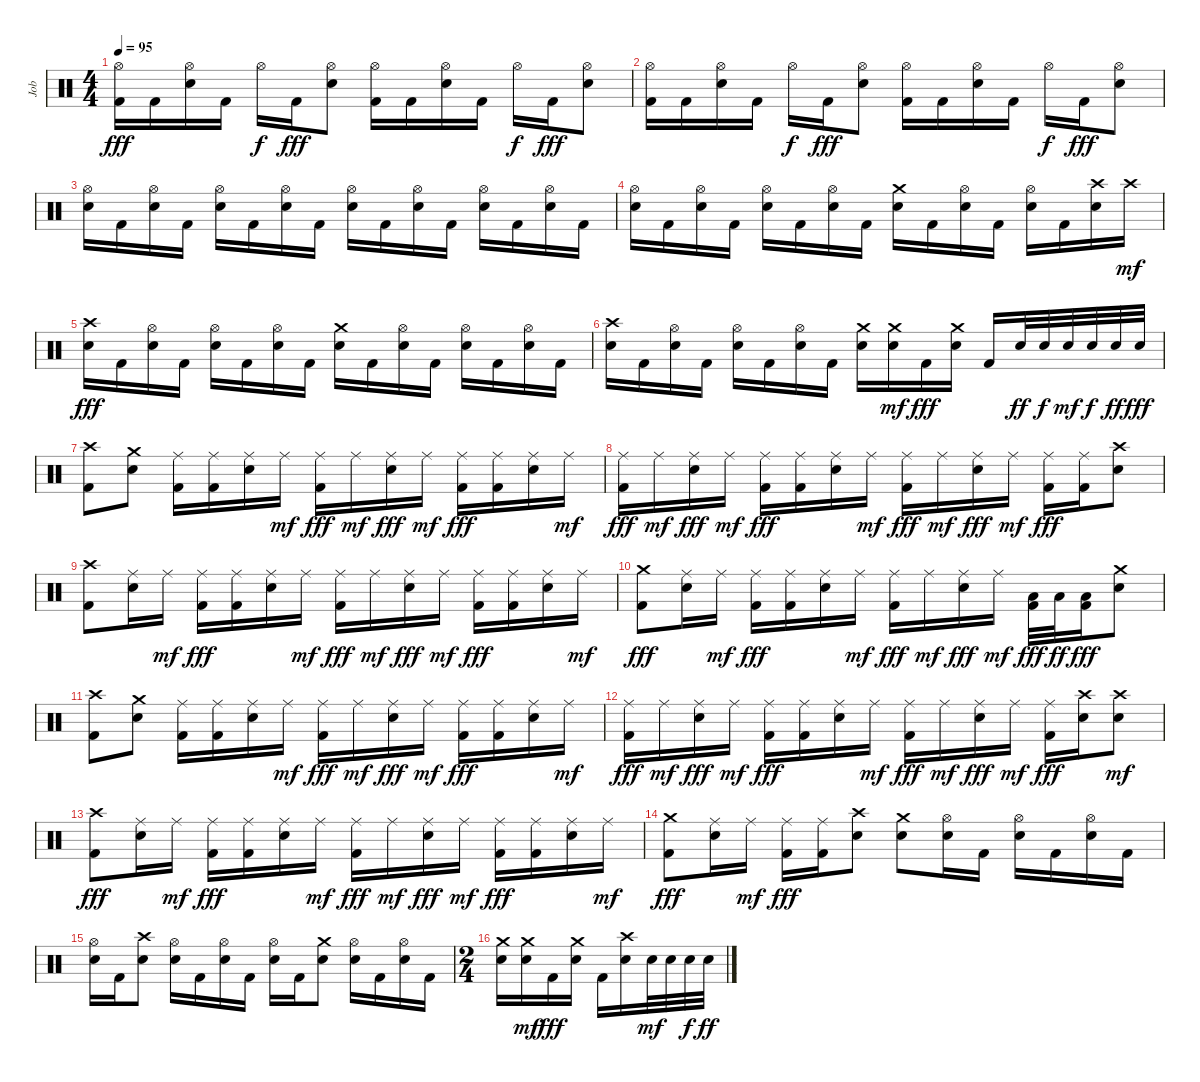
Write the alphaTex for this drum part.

\track ("Job" "Job") {instrument percussion}
\staff {score}
\articulation defaults
\ts (4 4)
\tempo 95
\clef neutral
\ks c
("Hi-Hat (open)" "Kick (hit) 2").16{dy fff} "Kick (hit) 2".16 ("Hi-Hat (open)" "Electric Snare (hit)").16 "Kick (hit) 2".16 "Hi-Hat (open)".16{dy f} "Kick (hit) 2".16{dy fff} ("Hi-Hat (open)" "Electric Snare (hit)").8 ("Hi-Hat (open)" "Kick (hit) 2").16 "Kick (hit) 2".16 ("Hi-Hat (open)" "Electric Snare (hit)").16 "Kick (hit) 2".16 "Hi-Hat (open)".16{dy f} "Kick (hit) 2".16{dy fff} ("Hi-Hat (open)" "Electric Snare (hit)").8 |
("Hi-Hat (open)" "Kick (hit) 2").16 "Kick (hit) 2".16 ("Hi-Hat (open)" "Electric Snare (hit)").16 "Kick (hit) 2".16 "Hi-Hat (open)".16{dy f} "Kick (hit) 2".16{dy fff} ("Hi-Hat (open)" "Electric Snare (hit)").8 ("Hi-Hat (open)" "Kick (hit) 2").16 "Kick (hit) 2".16 ("Hi-Hat (open)" "Electric Snare (hit)").16 "Kick (hit) 2".16 "Hi-Hat (open)".16{dy f} "Kick (hit) 2".16{dy fff} ("Hi-Hat (open)" "Electric Snare (hit)").8 |
("Hi-Hat (open)" "Electric Snare (hit)").16 "Kick (hit) 2".16 ("Hi-Hat (open)" "Electric Snare (hit)").16 "Kick (hit) 2".16 ("Hi-Hat (open)" "Electric Snare (hit)").16 "Kick (hit) 2".16 ("Hi-Hat (open)" "Electric Snare (hit)").16 "Kick (hit) 2".16 ("Hi-Hat (open)" "Electric Snare (hit)").16 "Kick (hit) 2".16 ("Hi-Hat (open)" "Electric Snare (hit)").16 "Kick (hit) 2".16 ("Hi-Hat (open)" "Electric Snare (hit)").16 "Kick (hit) 2".16 ("Hi-Hat (open)" "Electric Snare (hit)").16 "Kick (hit) 2".16 |
("Hi-Hat (open)" "Electric Snare (hit)").16 "Kick (hit) 2".16 ("Hi-Hat (open)" "Electric Snare (hit)").16 "Kick (hit) 2".16 ("Hi-Hat (open)" "Electric Snare (hit)").16 "Kick (hit) 2".16 ("Hi-Hat (open)" "Electric Snare (hit)").16 "Kick (hit) 2".16 ("Crash medium (hit)" "Electric Snare (hit)").16 "Kick (hit) 2".16 ("Hi-Hat (open)" "Electric Snare (hit)").16 "Kick (hit) 2".16 ("Hi-Hat (open)" "Electric Snare (hit)").16 "Kick (hit) 2".16 ("Crash high (hit)" "Electric Snare (hit)").16 "Crash high (hit)".16{dy mf} |
("Crash high (hit)" "Electric Snare (hit)").16{dy fff} "Kick (hit) 2".16 ("Hi-Hat (open)" "Electric Snare (hit)").16 "Kick (hit) 2".16 ("Hi-Hat (open)" "Electric Snare (hit)").16 "Kick (hit) 2".16 ("Hi-Hat (open)" "Electric Snare (hit)").16 "Kick (hit) 2".16 ("Crash medium (hit)" "Electric Snare (hit)").16 "Kick (hit) 2".16 ("Hi-Hat (open)" "Electric Snare (hit)").16 "Kick (hit) 2".16 ("Hi-Hat (open)" "Electric Snare (hit)").16 "Kick (hit) 2".16 ("Hi-Hat (open)" "Electric Snare (hit)").16 "Kick (hit) 2".16 |
("Crash high (hit)" "Electric Snare (hit)").16 "Kick (hit) 2".16 ("Hi-Hat (open)" "Electric Snare (hit)").16 "Kick (hit) 2".16 ("Hi-Hat (open)" "Electric Snare (hit)").16 "Kick (hit) 2".16 ("Hi-Hat (open)" "Electric Snare (hit)").16 "Kick (hit) 2".16 ("Crash medium (hit)" "Electric Snare (hit)").16 ("Crash medium (hit)" "Electric Snare (hit)").16{dy mf} "Kick (hit) 2".16{dy fff} ("Crash medium (hit)" "Electric Snare (hit)").16 "Kick (hit) 2".16 "Electric Snare (hit)".32{dy ff} "Electric Snare (hit)".32{dy f} "Electric Snare (hit)".32{dy mf} "Electric Snare (hit)".32{dy f} "Electric Snare (hit)".32{dy ff} "Electric Snare (hit)".32{dy fff} |
("Crash high (hit)" "Kick (hit) 2").8 ("Crash medium (hit)" "Electric Snare (hit)").8 ("Ride (middle)" "Kick (hit) 2").16 ("Ride (middle)" "Kick (hit) 2").16 ("Ride (middle)" "Electric Snare (hit)").16 "Ride (middle)".16{dy mf} ("Ride (middle)" "Kick (hit) 2").16{dy fff} "Ride (middle)".16{dy mf} ("Ride (middle)" "Electric Snare (hit)").16{dy fff} "Ride (middle)".16{dy mf} ("Ride (middle)" "Kick (hit) 2").16{dy fff} ("Ride (middle)" "Kick (hit) 2").16 ("Ride (middle)" "Electric Snare (hit)").16 "Ride (middle)".16{dy mf} |
("Ride (middle)" "Kick (hit) 2").16{dy fff} "Ride (middle)".16{dy mf} ("Ride (middle)" "Electric Snare (hit)").16{dy fff} "Ride (middle)".16{dy mf} ("Ride (middle)" "Kick (hit) 2").16{dy fff} ("Ride (middle)" "Kick (hit) 2").16 ("Ride (middle)" "Electric Snare (hit)").16 "Ride (middle)".16{dy mf} ("Ride (middle)" "Kick (hit) 2").16{dy fff} "Ride (middle)".16{dy mf} ("Ride (middle)" "Electric Snare (hit)").16{dy fff} "Ride (middle)".16{dy mf} ("Ride (middle)" "Kick (hit) 2").16{dy fff} ("Ride (middle)" "Kick (hit) 2").16 ("Crash high (hit)" "Electric Snare (hit)").8 |
("Crash high (hit)" "Kick (hit) 2").8 ("Ride (middle)" "Electric Snare (hit)").16 "Ride (middle)".16{dy mf} ("Ride (middle)" "Kick (hit) 2").16{dy fff} ("Ride (middle)" "Kick (hit) 2").16 ("Ride (middle)" "Electric Snare (hit)").16 "Ride (middle)".16{dy mf} ("Ride (middle)" "Kick (hit) 2").16{dy fff} "Ride (middle)".16{dy mf} ("Ride (middle)" "Electric Snare (hit)").16{dy fff} "Ride (middle)".16{dy mf} ("Ride (middle)" "Kick (hit) 2").16{dy fff} ("Ride (middle)" "Kick (hit) 2").16 ("Ride (middle)" "Electric Snare (hit)").16 "Ride (middle)".16{dy mf} |
("Crash medium (hit)" "Kick (hit) 2").8{dy fff} ("Ride (middle)" "Electric Snare (hit)").16 "Ride (middle)".16{dy mf} ("Ride (middle)" "Kick (hit) 2").16{dy fff} ("Ride (middle)" "Kick (hit) 2").16 ("Ride (middle)" "Electric Snare (hit)").16 "Ride (middle)".16{dy mf} ("Ride (middle)" "Kick (hit) 2").16{dy fff} "Ride (middle)".16{dy mf} ("Ride (middle)" "Electric Snare (hit)").16{dy fff} "Ride (middle)".16{dy mf} ("Low Tom (hit)" "Kick (hit) 2").32{dy fff} "Low Tom (hit)".32{dy ff} ("Low Tom (hit)" "Kick (hit) 2").16{dy fff} ("Crash medium (hit)" "Electric Snare (hit)").8 |
("Crash high (hit)" "Kick (hit) 2").8 ("Crash medium (hit)" "Electric Snare (hit)").8 ("Ride (middle)" "Kick (hit) 2").16 ("Ride (middle)" "Kick (hit) 2").16 ("Ride (middle)" "Electric Snare (hit)").16 "Ride (middle)".16{dy mf} ("Ride (middle)" "Kick (hit) 2").16{dy fff} "Ride (middle)".16{dy mf} ("Ride (middle)" "Electric Snare (hit)").16{dy fff} "Ride (middle)".16{dy mf} ("Ride (middle)" "Kick (hit) 2").16{dy fff} ("Ride (middle)" "Kick (hit) 2").16 ("Ride (middle)" "Electric Snare (hit)").16 "Ride (middle)".16{dy mf} |
("Ride (middle)" "Kick (hit) 2").16{dy fff} "Ride (middle)".16{dy mf} ("Ride (middle)" "Electric Snare (hit)").16{dy fff} "Ride (middle)".16{dy mf} ("Ride (middle)" "Kick (hit) 2").16{dy fff} ("Ride (middle)" "Kick (hit) 2").16 ("Ride (middle)" "Electric Snare (hit)").16 "Ride (middle)".16{dy mf} ("Ride (middle)" "Kick (hit) 2").16{dy fff} "Ride (middle)".16{dy mf} ("Ride (middle)" "Electric Snare (hit)").16{dy fff} "Ride (middle)".16{dy mf} ("Ride (middle)" "Kick (hit) 2").16{dy fff} ("Crash high (hit)" "Electric Snare (hit)").16 ("Crash high (hit)" "Electric Snare (hit)").8{dy mf} |
("Crash high (hit)" "Kick (hit) 2").8{dy fff} ("Ride (middle)" "Electric Snare (hit)").16 "Ride (middle)".16{dy mf} ("Ride (middle)" "Kick (hit) 2").16{dy fff} ("Ride (middle)" "Kick (hit) 2").16 ("Ride (middle)" "Electric Snare (hit)").16 "Ride (middle)".16{dy mf} ("Ride (middle)" "Kick (hit) 2").16{dy fff} "Ride (middle)".16{dy mf} ("Ride (middle)" "Electric Snare (hit)").16{dy fff} "Ride (middle)".16{dy mf} ("Ride (middle)" "Kick (hit) 2").16{dy fff} ("Ride (middle)" "Kick (hit) 2").16 ("Ride (middle)" "Electric Snare (hit)").16 "Ride (middle)".16{dy mf} |
("Crash medium (hit)" "Kick (hit) 2").8{dy fff} ("Ride (middle)" "Electric Snare (hit)").16 "Ride (middle)".16{dy mf} ("Ride (middle)" "Kick (hit) 2").16{dy fff} ("Ride (middle)" "Kick (hit) 2").16 ("Crash high (hit)" "Electric Snare (hit)").8 ("Crash medium (hit)" "Electric Snare (hit)").8 ("Hi-Hat (open)" "Electric Snare (hit)").16 "Kick (hit) 2".16 ("Hi-Hat (open)" "Electric Snare (hit)").16 "Kick (hit) 2".16 ("Hi-Hat (open)" "Electric Snare (hit)").16 "Kick (hit) 2".16 |
("Hi-Hat (open)" "Electric Snare (hit)").16 "Kick (hit) 2".16 ("Crash high (hit)" "Electric Snare (hit)").8 ("Hi-Hat (open)" "Electric Snare (hit)").16 "Kick (hit) 2".16 ("Hi-Hat (open)" "Electric Snare (hit)").16 "Kick (hit) 2".16 ("Hi-Hat (open)" "Electric Snare (hit)").16 "Kick (hit) 2".16 ("Crash medium (hit)" "Electric Snare (hit)").8 ("Hi-Hat (open)" "Electric Snare (hit)").16 "Kick (hit) 2".16 ("Hi-Hat (open)" "Electric Snare (hit)").16 "Kick (hit) 2".16 |
\ts (2 4)
("Crash medium (hit)" "Electric Snare (hit)").16 ("Crash medium (hit)" "Electric Snare (hit)").16{dy mf} "Kick (hit) 2".16{dy fff} ("Crash medium (hit)" "Electric Snare (hit)").16 "Kick (hit) 2".16 ("Crash high (hit)" "Electric Snare (hit)").16 "Electric Snare (hit)".32{dy mf} "Electric Snare (hit)".32 "Electric Snare (hit)".32{dy f} "Electric Snare (hit)".32{dy ff}
